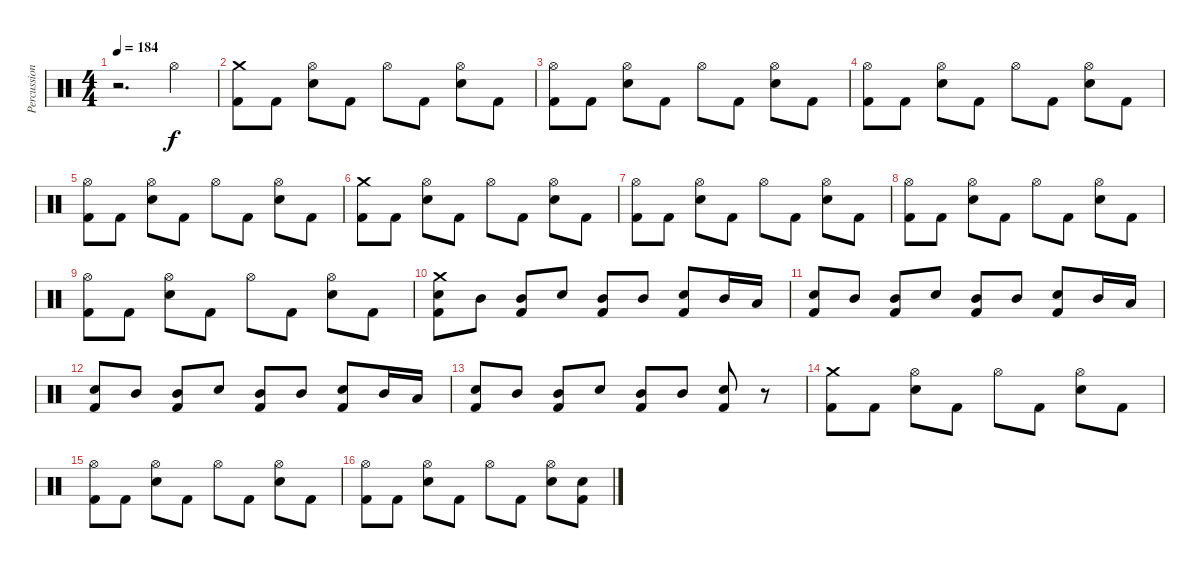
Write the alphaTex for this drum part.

\track ("Percussion" "Percussion") {instrument percussion}
\staff {score}
\articulation defaults
\ts (4 4)
\tempo 184
\clef neutral
\ks c
r.2{d dy f} "Hi-Hat (open)".4 |
("Crash medium (hit)" "Kick (hit) 2").8 "Kick (hit) 2".8 ("Hi-Hat (open)" "Electric Snare (hit)").8 "Kick (hit) 2".8 "Hi-Hat (open)".8 "Kick (hit) 2".8 ("Hi-Hat (open)" "Electric Snare (hit)").8 "Kick (hit) 2".8 |
("Hi-Hat (open)" "Kick (hit) 2").8 "Kick (hit) 2".8 ("Hi-Hat (open)" "Electric Snare (hit)").8 "Kick (hit) 2".8 "Hi-Hat (open)".8 "Kick (hit) 2".8 ("Hi-Hat (open)" "Electric Snare (hit)").8 "Kick (hit) 2".8 |
("Hi-Hat (open)" "Kick (hit) 2").8 "Kick (hit) 2".8 ("Hi-Hat (open)" "Electric Snare (hit)").8 "Kick (hit) 2".8 "Hi-Hat (open)".8 "Kick (hit) 2".8 ("Hi-Hat (open)" "Electric Snare (hit)").8 "Kick (hit) 2".8 |
("Hi-Hat (open)" "Kick (hit) 2").8 "Kick (hit) 2".8 ("Hi-Hat (open)" "Electric Snare (hit)").8 "Kick (hit) 2".8 "Hi-Hat (open)".8 "Kick (hit) 2".8 ("Hi-Hat (open)" "Electric Snare (hit)").8 "Kick (hit) 2".8 |
("Crash medium (hit)" "Kick (hit) 2").8 "Kick (hit) 2".8 ("Hi-Hat (open)" "Electric Snare (hit)").8 "Kick (hit) 2".8 "Hi-Hat (open)".8 "Kick (hit) 2".8 ("Hi-Hat (open)" "Electric Snare (hit)").8 "Kick (hit) 2".8 |
("Hi-Hat (open)" "Kick (hit) 2").8 "Kick (hit) 2".8 ("Hi-Hat (open)" "Electric Snare (hit)").8 "Kick (hit) 2".8 "Hi-Hat (open)".8 "Kick (hit) 2".8 ("Hi-Hat (open)" "Electric Snare (hit)").8 "Kick (hit) 2".8 |
("Hi-Hat (open)" "Kick (hit) 2").8 "Kick (hit) 2".8 ("Hi-Hat (open)" "Electric Snare (hit)").8 "Kick (hit) 2".8 "Hi-Hat (open)".8 "Kick (hit) 2".8 ("Hi-Hat (open)" "Electric Snare (hit)").8 "Kick (hit) 2".8 |
("Hi-Hat (open)" "Kick (hit) 2").8 "Kick (hit) 2".8 ("Hi-Hat (open)" "Electric Snare (hit)").8 "Kick (hit) 2".8 "Hi-Hat (open)".8 "Kick (hit) 2".8 ("Hi-Hat (open)" "Electric Snare (hit)").8 "Kick (hit) 2".8 |
("Crash medium (hit)" "Electric Snare (hit)" "Kick (hit) 2").8 "Mid Tom (hit)".8 ("Mid Tom (hit)" "Kick (hit) 2").8 "Electric Snare (hit)".8 ("Mid Tom (hit)" "Kick (hit) 2").8 "Mid Tom (hit)".8 ("Electric Snare (hit)" "Kick (hit) 2").8 "Mid Tom (hit)".16 "Low Tom (hit)".16 |
("Electric Snare (hit)" "Kick (hit) 2").8 "Mid Tom (hit)".8 ("Mid Tom (hit)" "Kick (hit) 2").8 "Electric Snare (hit)".8 ("Mid Tom (hit)" "Kick (hit) 2").8 "Mid Tom (hit)".8 ("Electric Snare (hit)" "Kick (hit) 2").8 "Mid Tom (hit)".16 "Low Tom (hit)".16 |
("Electric Snare (hit)" "Kick (hit) 2").8 "Mid Tom (hit)".8 ("Mid Tom (hit)" "Kick (hit) 2").8 "Electric Snare (hit)".8 ("Mid Tom (hit)" "Kick (hit) 2").8 "Mid Tom (hit)".8 ("Electric Snare (hit)" "Kick (hit) 2").8 "Mid Tom (hit)".16 "Low Tom (hit)".16 |
("Electric Snare (hit)" "Kick (hit) 2").8 "Mid Tom (hit)".8 ("Mid Tom (hit)" "Kick (hit) 2").8 "Electric Snare (hit)".8 ("Mid Tom (hit)" "Kick (hit) 2").8 "Mid Tom (hit)".8 ("Electric Snare (hit)" "Kick (hit) 2").8 r.8 |
("Crash medium (hit)" "Kick (hit) 2").8 "Kick (hit) 2".8 ("Hi-Hat (open)" "Electric Snare (hit)").8 "Kick (hit) 2".8 "Hi-Hat (open)".8 "Kick (hit) 2".8 ("Hi-Hat (open)" "Electric Snare (hit)").8 "Kick (hit) 2".8 |
("Hi-Hat (open)" "Kick (hit) 2").8 "Kick (hit) 2".8 ("Hi-Hat (open)" "Electric Snare (hit)").8 "Kick (hit) 2".8 "Hi-Hat (open)".8 "Kick (hit) 2".8 ("Hi-Hat (open)" "Electric Snare (hit)").8 "Kick (hit) 2".8 |
("Hi-Hat (open)" "Kick (hit) 2").8 "Kick (hit) 2".8 ("Hi-Hat (open)" "Electric Snare (hit)").8 "Kick (hit) 2".8 "Hi-Hat (open)".8 "Kick (hit) 2".8 ("Hi-Hat (open)" "Electric Snare (hit)").8 ("Electric Snare (hit)" "Kick (hit) 2").8
